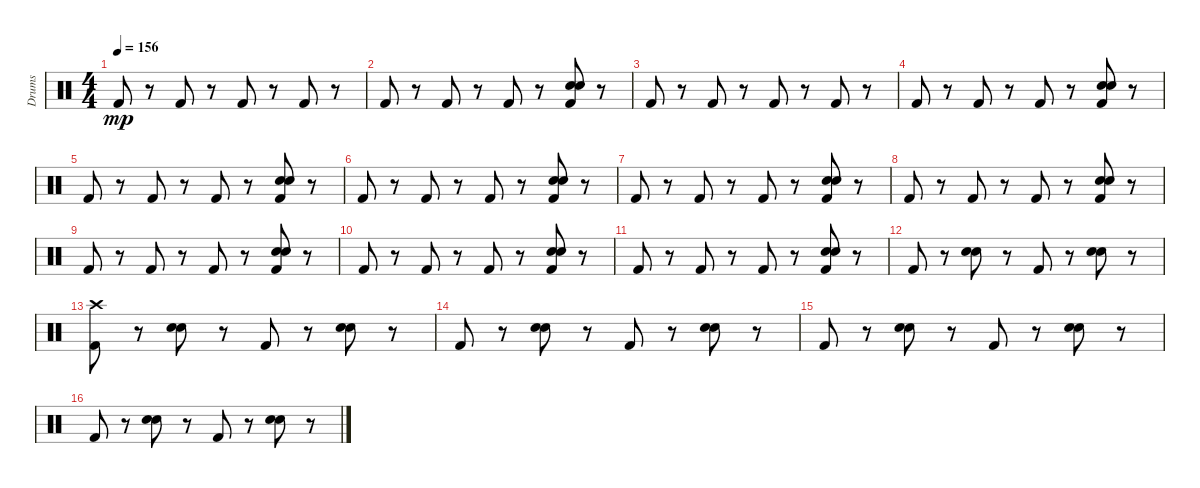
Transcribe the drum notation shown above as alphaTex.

\track ("Drums" "Drums") {instrument percussion}
\staff {score}
\articulation defaults
\ts (4 4)
\tempo 156
\clef neutral
\ks c "Kick (hit) 2".8{dy mp}
r.8 "Kick (hit) 2".8 r.8 "Kick (hit) 2".8 r.8 "Kick (hit) 2".8 r.8 |
"Kick (hit) 2".8 r.8 "Kick (hit) 2".8 r.8 "Kick (hit) 2".8 r.8 ("Kick (hit) 2" "Snare (hit) 2" "Electric Snare (hit)").8 r.8 |
"Kick (hit) 2".8 r.8 "Kick (hit) 2".8 r.8 "Kick (hit) 2".8 r.8 "Kick (hit) 2".8 r.8 |
"Kick (hit) 2".8 r.8 "Kick (hit) 2".8 r.8 "Kick (hit) 2".8 r.8 ("Kick (hit) 2" "Electric Snare (hit)" "Snare (hit) 2").8 r.8 |
"Kick (hit) 2".8 r.8 "Kick (hit) 2".8 r.8 "Kick (hit) 2".8 r.8 ("Electric Snare (hit)" "Snare (hit) 2" "Kick (hit) 2").8 r.8 |
"Kick (hit) 2".8 r.8 "Kick (hit) 2".8 r.8 "Kick (hit) 2".8 r.8 ("Snare (hit) 2" "Kick (hit) 2" "Electric Snare (hit)").8 r.8 |
"Kick (hit) 2".8 r.8 "Kick (hit) 2".8 r.8 "Kick (hit) 2".8 r.8 ("Snare (hit) 2" "Electric Snare (hit)" "Kick (hit) 2").8 r.8 |
"Kick (hit) 2".8 r.8 "Kick (hit) 2".8 r.8 "Kick (hit) 2".8 r.8 ("Snare (hit) 2" "Electric Snare (hit)" "Kick (hit) 2").8 r.8 |
"Kick (hit) 2".8 r.8 "Kick (hit) 2".8 r.8 "Kick (hit) 2".8 r.8 ("Electric Snare (hit)" "Kick (hit) 2" "Snare (hit) 2").8 r.8 |
"Kick (hit) 2".8 r.8 "Kick (hit) 2".8 r.8 "Kick (hit) 2".8 r.8 ("Electric Snare (hit)" "Kick (hit) 2" "Snare (hit) 2").8 r.8 |
"Kick (hit) 2".8 r.8 "Kick (hit) 2".8 r.8 "Kick (hit) 2".8 r.8 ("Snare (hit) 2" "Electric Snare (hit)" "Kick (hit) 2").8 r.8 |
"Kick (hit) 2".8 r.8 ("Electric Snare (hit)" "Snare (hit) 2").8 r.8 "Kick (hit) 2".8 r.8 ("Electric Snare (hit)" "Snare (hit) 2").8 r.8 |
("Kick (hit) 2" "Crash high (hit)").8 r.8 ("Snare (hit) 2" "Electric Snare (hit)").8 r.8 "Kick (hit) 2".8 r.8 ("Electric Snare (hit)" "Snare (hit) 2").8 r.8 |
"Kick (hit) 2".8 r.8 ("Snare (hit) 2" "Electric Snare (hit)").8 r.8 "Kick (hit) 2".8 r.8 ("Electric Snare (hit)" "Snare (hit) 2").8 r.8 |
"Kick (hit) 2".8 r.8 ("Electric Snare (hit)" "Snare (hit) 2").8 r.8 "Kick (hit) 2".8 r.8 ("Snare (hit) 2" "Electric Snare (hit)").8 r.8 |
"Kick (hit) 2".8 r.8 ("Snare (hit) 2" "Electric Snare (hit)").8 r.8 "Kick (hit) 2".8 r.8 ("Snare (hit) 2" "Electric Snare (hit)").8 r.8
